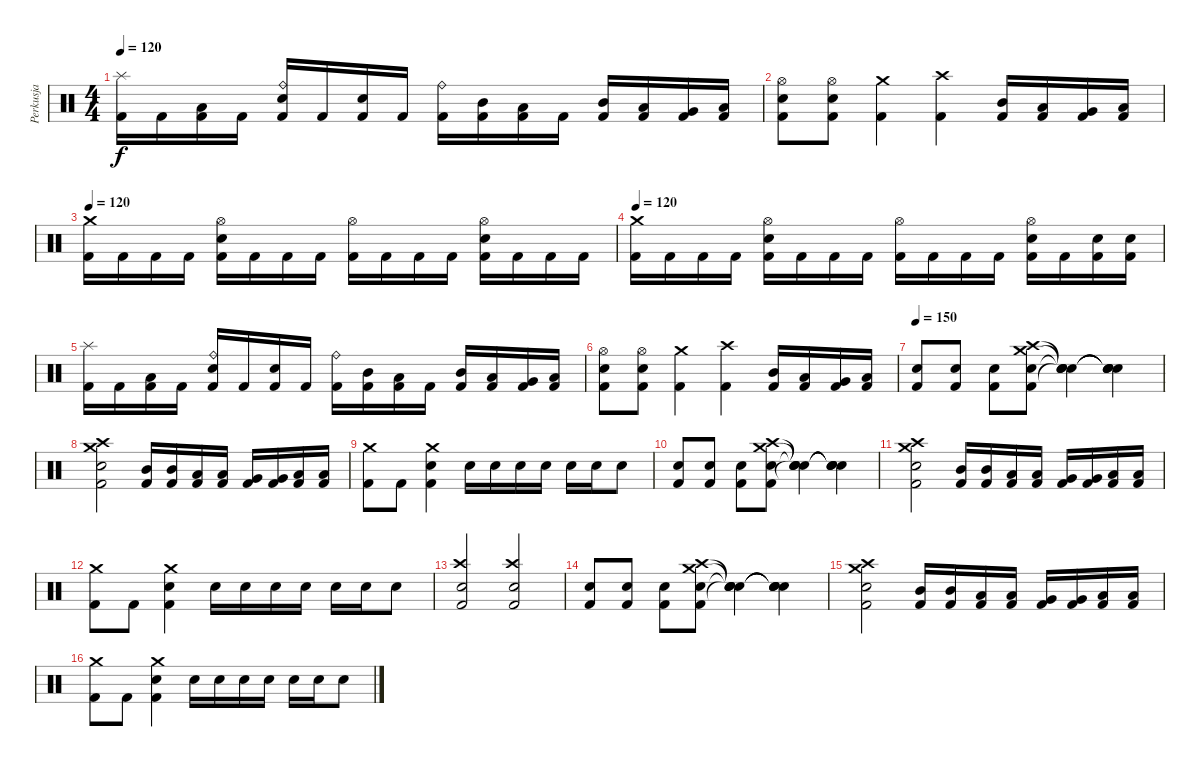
\track ("Perkusja" "Perkusja") {instrument percussion}
\staff {score}
\articulation defaults
\ts (4 4)
\tempo 120
\clef neutral
\ks c
("Splash (hit)" "Kick (hit) 2").16{dy f} "Kick (hit) 2".16 ("Low Tom (hit)" "Kick (hit) 2").16 "Kick (hit) 2".16 ("Ride (bell)" "Electric Snare (hit)" "Kick (hit) 2").16 "Kick (hit) 2".16 ("Electric Snare (hit)" "Kick (hit) 2").16 "Kick (hit) 2".16 ("Ride (bell)" "Kick (hit) 2").16 ("Mid Tom (hit)" "Kick (hit) 2").16 ("Low Tom (hit)" "Kick (hit) 2").16 "Kick (hit) 2".16 ("Mid Tom (hit)" "Kick (hit) 2").16 ("Low Tom (hit)" "Kick (hit) 2").16 ("Very Low Tom (hit)" "Kick (hit) 2").16 ("Low Floor Tom (hit)" "Kick (hit) 2").16 |
("Kick (hit) 2" "Electric Snare (hit)" "Hi-Hat (open)").8 ("Kick (hit) 2" "Electric Snare (hit)" "Hi-Hat (open)").8 ("Crash medium (hit)" "Kick (hit) 2").4 ("Crash high (hit)" "Kick (hit) 2").4 ("Mid Tom (hit)" "Kick (hit) 2").16 ("Low Tom (hit)" "Kick (hit) 2").16 ("Very Low Tom (hit)" "Kick (hit) 2").16 ("Low Floor Tom (hit)" "Kick (hit) 2").16 |
\tempo 120
("Crash medium (hit)" "Kick (hit) 2").16 "Kick (hit) 2".16 "Kick (hit) 2".16 "Kick (hit) 2".16 ("Hi-Hat (open)" "Electric Snare (hit)" "Kick (hit) 2").16 "Kick (hit) 2".16 "Kick (hit) 2".16 "Kick (hit) 2".16 ("Hi-Hat (open)" "Kick (hit) 2").16 "Kick (hit) 2".16 "Kick (hit) 2".16 "Kick (hit) 2".16 ("Hi-Hat (open)" "Electric Snare (hit)" "Kick (hit) 2").16 "Kick (hit) 2".16 "Kick (hit) 2".16 "Kick (hit) 2".16 |
\tempo 120
("Crash medium (hit)" "Kick (hit) 2").16 "Kick (hit) 2".16 "Kick (hit) 2".16 "Kick (hit) 2".16 ("Hi-Hat (open)" "Electric Snare (hit)" "Kick (hit) 2").16 "Kick (hit) 2".16 "Kick (hit) 2".16 "Kick (hit) 2".16 ("Hi-Hat (open)" "Kick (hit) 2").16 "Kick (hit) 2".16 "Kick (hit) 2".16 "Kick (hit) 2".16 ("Hi-Hat (open)" "Electric Snare (hit)" "Kick (hit) 2").16 "Kick (hit) 2".16 ("Electric Snare (hit)" "Kick (hit) 2").16 ("Electric Snare (hit)" "Kick (hit) 2").16 |
("Splash (hit)" "Kick (hit) 2").16 "Kick (hit) 2".16 ("Low Tom (hit)" "Kick (hit) 2").16 "Kick (hit) 2".16 ("Ride (bell)" "Electric Snare (hit)" "Kick (hit) 2").16 "Kick (hit) 2".16 ("Electric Snare (hit)" "Kick (hit) 2").16 "Kick (hit) 2".16 ("Ride (bell)" "Kick (hit) 2").16 ("Mid Tom (hit)" "Kick (hit) 2").16 ("Low Tom (hit)" "Kick (hit) 2").16 "Kick (hit) 2".16 ("Mid Tom (hit)" "Kick (hit) 2").16 ("Low Tom (hit)" "Kick (hit) 2").16 ("Very Low Tom (hit)" "Kick (hit) 2").16 ("Low Floor Tom (hit)" "Kick (hit) 2").16 |
("Kick (hit) 2" "Electric Snare (hit)" "Hi-Hat (open)").8 ("Kick (hit) 2" "Electric Snare (hit)" "Hi-Hat (open)").8 ("Crash medium (hit)" "Kick (hit) 2").4 ("Crash high (hit)" "Kick (hit) 2").4 ("Mid Tom (hit)" "Kick (hit) 2").16 ("Low Tom (hit)" "Kick (hit) 2").16 ("Very Low Tom (hit)" "Kick (hit) 2").16 ("Low Floor Tom (hit)" "Kick (hit) 2").16 |
\tempo 150
("Snare (hit) 2" "Kick (hit) 2").8 ("Snare (hit) 2" "Kick (hit) 2").8 ("Snare (hit) 2" "Kick (hit) 2").8 ("Crash high (hit)" "Kick (hit) 2" "Crash medium (hit)" "Electric Snare (hit)").8 ("Snare (hit)"{t} "Snare (hit)"{t} "Snare (hit)"{t} "Snare (hit)"{t}).4 ("Snare (hit)"{t} "Snare (hit)"{t} "Snare (hit)"{t} "Snare (hit)"{t}).4 |
("Crash medium (hit)" "Crash high (hit)" "Electric Snare (hit)" "Kick (hit) 2").2 ("Mid Tom (hit)" "Kick (hit) 2").16 ("Mid Tom (hit)" "Kick (hit) 2").16 ("Low Tom (hit)" "Kick (hit) 2").16 ("Low Tom (hit)" "Kick (hit) 2").16 ("Very Low Tom (hit)" "Kick (hit) 2").16 ("Very Low Tom (hit)" "Kick (hit) 2").16 ("Low Floor Tom (hit)" "Kick (hit) 2").16 ("Low Floor Tom (hit)" "Kick (hit) 2").16 |
("Crash medium (hit)" "Kick (hit) 2").8 "Kick (hit) 2".8 ("Crash medium (hit)" "Electric Snare (hit)" "Kick (hit) 2").4 "Electric Snare (hit)".16 "Electric Snare (hit)".16 "Electric Snare (hit)".16 "Electric Snare (hit)".16 "Snare (hit) 2".16 "Snare (hit) 2".16 "Snare (hit) 2".8 |
("Snare (hit) 2" "Kick (hit) 2").8 ("Snare (hit) 2" "Kick (hit) 2").8 ("Snare (hit) 2" "Kick (hit) 2").8 ("Crash high (hit)" "Kick (hit) 2" "Crash medium (hit)" "Electric Snare (hit)").8 ("Snare (hit)"{t} "Snare (hit)"{t} "Snare (hit)"{t} "Snare (hit)"{t}).4 ("Snare (hit)"{t} "Snare (hit)"{t} "Snare (hit)"{t} "Snare (hit)"{t}).4 |
("Crash medium (hit)" "Crash high (hit)" "Electric Snare (hit)" "Kick (hit) 2").2 ("Mid Tom (hit)" "Kick (hit) 2").16 ("Mid Tom (hit)" "Kick (hit) 2").16 ("Low Tom (hit)" "Kick (hit) 2").16 ("Low Tom (hit)" "Kick (hit) 2").16 ("Very Low Tom (hit)" "Kick (hit) 2").16 ("Very Low Tom (hit)" "Kick (hit) 2").16 ("Low Floor Tom (hit)" "Kick (hit) 2").16 ("Low Floor Tom (hit)" "Kick (hit) 2").16 |
("Crash medium (hit)" "Kick (hit) 2").8 "Kick (hit) 2".8 ("Crash medium (hit)" "Electric Snare (hit)" "Kick (hit) 2").4 "Electric Snare (hit)".16 "Electric Snare (hit)".16 "Electric Snare (hit)".16 "Electric Snare (hit)".16 "Snare (hit) 2".16 "Snare (hit) 2".16 "Snare (hit) 2".8 |
("Kick (hit) 2" "Crash high (hit)" "Snare (hit) 2").2 ("Kick (hit) 2" "Crash high (hit)" "Snare (hit) 2").2 |
("Snare (hit) 2" "Kick (hit) 2").8 ("Snare (hit) 2" "Kick (hit) 2").8 ("Snare (hit) 2" "Kick (hit) 2").8 ("Crash high (hit)" "Kick (hit) 2" "Crash medium (hit)" "Electric Snare (hit)").8 ("Snare (hit)"{t} "Snare (hit)"{t} "Snare (hit)"{t} "Snare (hit)"{t}).4 ("Snare (hit)"{t} "Snare (hit)"{t} "Snare (hit)"{t} "Snare (hit)"{t}).4 |
("Crash medium (hit)" "Crash high (hit)" "Electric Snare (hit)" "Kick (hit) 2").2 ("Mid Tom (hit)" "Kick (hit) 2").16 ("Mid Tom (hit)" "Kick (hit) 2").16 ("Low Tom (hit)" "Kick (hit) 2").16 ("Low Tom (hit)" "Kick (hit) 2").16 ("Very Low Tom (hit)" "Kick (hit) 2").16 ("Very Low Tom (hit)" "Kick (hit) 2").16 ("Low Floor Tom (hit)" "Kick (hit) 2").16 ("Low Floor Tom (hit)" "Kick (hit) 2").16 |
("Crash medium (hit)" "Kick (hit) 2").8 "Kick (hit) 2".8 ("Crash medium (hit)" "Electric Snare (hit)" "Kick (hit) 2").4 "Electric Snare (hit)".16 "Electric Snare (hit)".16 "Electric Snare (hit)".16 "Electric Snare (hit)".16 "Snare (hit) 2".16 "Snare (hit) 2".16 "Snare (hit) 2".8
